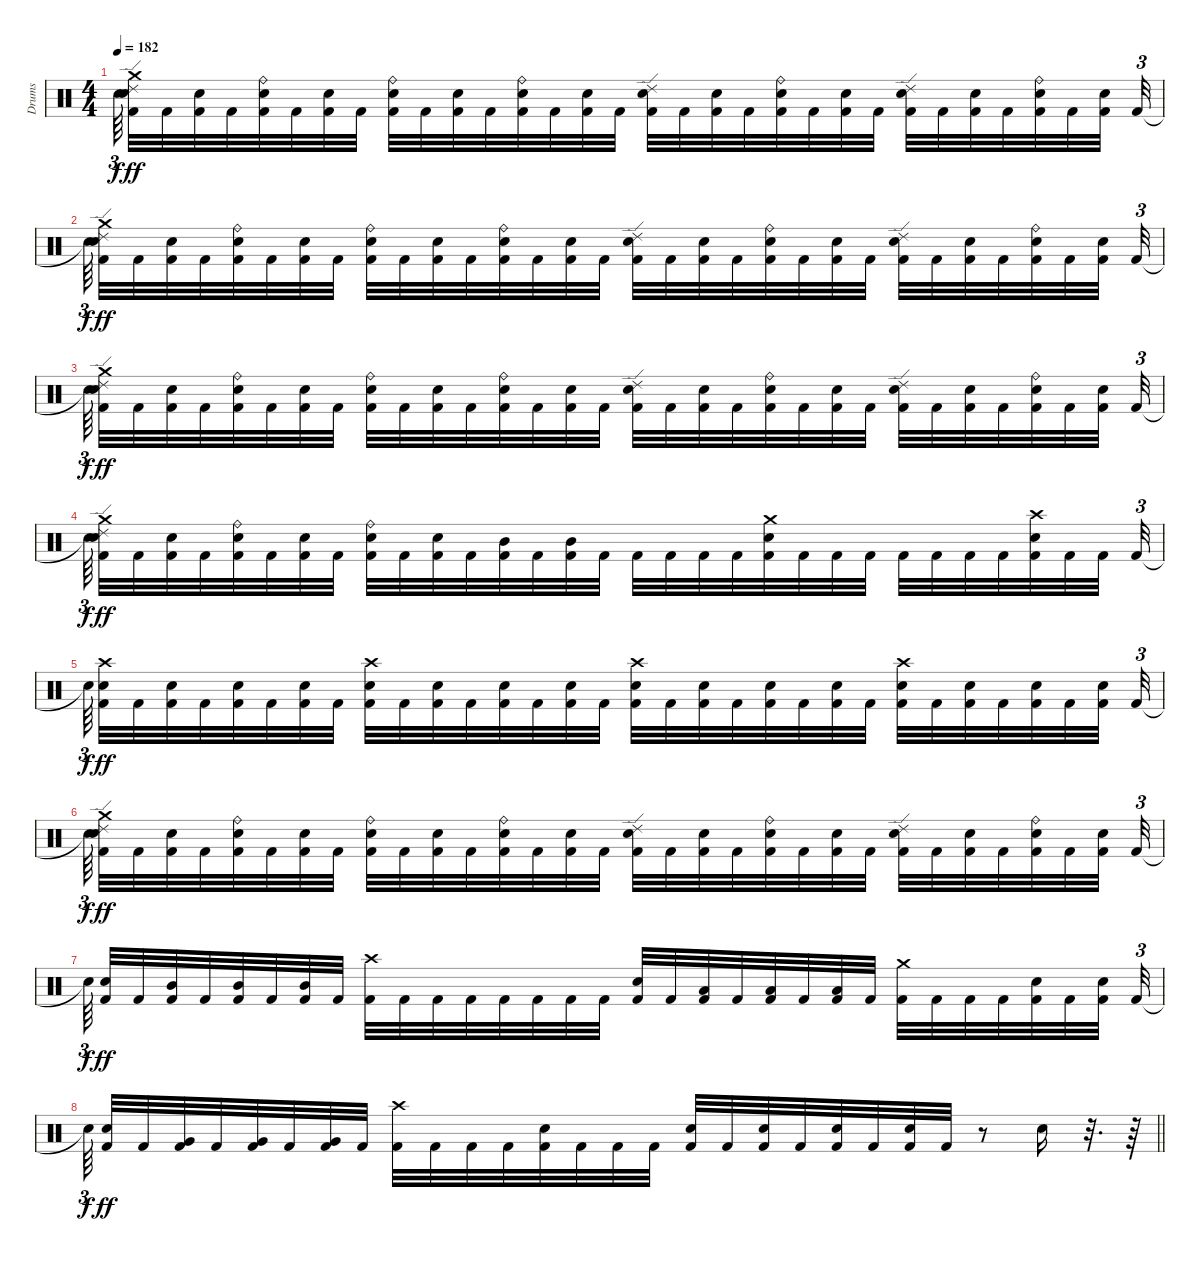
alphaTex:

\track ("Drums" "Drums") {instrument percussion}
\staff {score}
\articulation defaults
\ts (4 4)
\tempo 182
\clef neutral
\ks c "Snare (hit)"{t}.64{tu (3 2) dy f beam splitsecondary}
("Kick (hit) 2" "Snare (hit) 2" "Ride (edge) 2" "Crash medium (hit)").32{dy ff} "Kick (hit) 2".32 ("Kick (hit) 2" "Snare (hit) 2").32 "Kick (hit) 2".32 ("Kick (hit) 2" "Snare (hit) 2" "Ride (bell)").32 "Kick (hit) 2".32 ("Kick (hit) 2" "Snare (hit) 2").32 "Kick (hit) 2".32 ("Kick (hit) 2" "Snare (hit) 2" "Ride (bell)").32 "Kick (hit) 2".32 ("Kick (hit) 2" "Snare (hit) 2").32 "Kick (hit) 2".32 ("Kick (hit) 2" "Snare (hit) 2" "Ride (bell)").32 "Kick (hit) 2".32 ("Kick (hit) 2" "Snare (hit) 2").32 "Kick (hit) 2".32 ("Kick (hit) 2" "Snare (hit) 2" "Ride (edge) 2").32 "Kick (hit) 2".32 ("Kick (hit) 2" "Snare (hit) 2").32 "Kick (hit) 2".32 ("Kick (hit) 2" "Snare (hit) 2" "Ride (bell)").32 "Kick (hit) 2".32 ("Kick (hit) 2" "Snare (hit) 2").32 "Kick (hit) 2".32 ("Kick (hit) 2" "Snare (hit) 2" "Ride (edge) 2").32 "Kick (hit) 2".32 ("Kick (hit) 2" "Snare (hit) 2").32 "Kick (hit) 2".32 ("Kick (hit) 2" "Snare (hit) 2" "Ride (bell)").32 "Kick (hit) 2".32 ("Kick (hit) 2" "Snare (hit) 2").32{beam splitsecondary} "Kick (hit) 2".32{tu (3 2)} |
"Snare (hit)"{t}.64{tu (3 2) dy f beam splitsecondary} ("Kick (hit) 2" "Snare (hit) 2" "Ride (edge) 2" "Crash medium (hit)").32{dy ff} "Kick (hit) 2".32 ("Kick (hit) 2" "Snare (hit) 2").32 "Kick (hit) 2".32 ("Kick (hit) 2" "Snare (hit) 2" "Ride (bell)").32 "Kick (hit) 2".32 ("Kick (hit) 2" "Snare (hit) 2").32 "Kick (hit) 2".32 ("Kick (hit) 2" "Snare (hit) 2" "Ride (bell)").32 "Kick (hit) 2".32 ("Kick (hit) 2" "Snare (hit) 2").32 "Kick (hit) 2".32 ("Kick (hit) 2" "Snare (hit) 2" "Ride (bell)").32 "Kick (hit) 2".32 ("Kick (hit) 2" "Snare (hit) 2").32 "Kick (hit) 2".32 ("Kick (hit) 2" "Snare (hit) 2" "Ride (edge) 2").32 "Kick (hit) 2".32 ("Kick (hit) 2" "Snare (hit) 2").32 "Kick (hit) 2".32 ("Kick (hit) 2" "Snare (hit) 2" "Ride (bell)").32 "Kick (hit) 2".32 ("Kick (hit) 2" "Snare (hit) 2").32 "Kick (hit) 2".32 ("Kick (hit) 2" "Snare (hit) 2" "Ride (edge) 2").32 "Kick (hit) 2".32 ("Kick (hit) 2" "Snare (hit) 2").32 "Kick (hit) 2".32 ("Kick (hit) 2" "Snare (hit) 2" "Ride (bell)").32 "Kick (hit) 2".32 ("Kick (hit) 2" "Snare (hit) 2").32{beam splitsecondary} "Kick (hit) 2".32{tu (3 2)} |
"Snare (hit)"{t}.64{tu (3 2) dy f beam splitsecondary} ("Kick (hit) 2" "Snare (hit) 2" "Ride (edge) 2" "Crash medium (hit)").32{dy ff} "Kick (hit) 2".32 ("Kick (hit) 2" "Snare (hit) 2").32 "Kick (hit) 2".32 ("Kick (hit) 2" "Snare (hit) 2" "Ride (bell)").32 "Kick (hit) 2".32 ("Kick (hit) 2" "Snare (hit) 2").32 "Kick (hit) 2".32 ("Kick (hit) 2" "Snare (hit) 2" "Ride (bell)").32 "Kick (hit) 2".32 ("Kick (hit) 2" "Snare (hit) 2").32 "Kick (hit) 2".32 ("Kick (hit) 2" "Snare (hit) 2" "Ride (bell)").32 "Kick (hit) 2".32 ("Kick (hit) 2" "Snare (hit) 2").32 "Kick (hit) 2".32 ("Kick (hit) 2" "Snare (hit) 2" "Ride (edge) 2").32 "Kick (hit) 2".32 ("Kick (hit) 2" "Snare (hit) 2").32 "Kick (hit) 2".32 ("Kick (hit) 2" "Snare (hit) 2" "Ride (bell)").32 "Kick (hit) 2".32 ("Kick (hit) 2" "Snare (hit) 2").32 "Kick (hit) 2".32 ("Kick (hit) 2" "Snare (hit) 2" "Ride (edge) 2").32 "Kick (hit) 2".32 ("Kick (hit) 2" "Snare (hit) 2").32 "Kick (hit) 2".32 ("Kick (hit) 2" "Snare (hit) 2" "Ride (bell)").32 "Kick (hit) 2".32 ("Kick (hit) 2" "Snare (hit) 2").32{beam splitsecondary} "Kick (hit) 2".32{tu (3 2)} |
"Snare (hit)"{t}.64{tu (3 2) dy f beam splitsecondary} ("Kick (hit) 2" "Snare (hit) 2" "Ride (edge) 2" "Crash medium (hit)").32{dy ff} "Kick (hit) 2".32 ("Kick (hit) 2" "Snare (hit) 2").32 "Kick (hit) 2".32 ("Kick (hit) 2" "Snare (hit) 2" "Ride (bell)").32 "Kick (hit) 2".32 ("Kick (hit) 2" "Snare (hit) 2").32 "Kick (hit) 2".32 ("Kick (hit) 2" "Snare (hit) 2" "Ride (bell)").32 "Kick (hit) 2".32 ("Kick (hit) 2" "Snare (hit) 2").32 "Kick (hit) 2".32 ("Kick (hit) 2" "Mid Tom (hit)").32 "Kick (hit) 2".32 ("Kick (hit) 2" "Mid Tom (hit)").32 "Kick (hit) 2".32 "Kick (hit) 2".32 "Kick (hit) 2".32 "Kick (hit) 2".32 "Kick (hit) 2".32 ("Crash medium (hit)" "Kick (hit) 2" "Snare (hit) 2").32 "Kick (hit) 2".32 "Kick (hit) 2".32 "Kick (hit) 2".32 "Kick (hit) 2".32 "Kick (hit) 2".32 "Kick (hit) 2".32 "Kick (hit) 2".32 ("Crash high (hit)" "Kick (hit) 2" "Snare (hit) 2").32 "Kick (hit) 2".32 "Kick (hit) 2".32{beam splitsecondary} "Kick (hit) 2".32{tu (3 2)} |
"Snare (hit)"{t}.64{tu (3 2) dy f beam splitsecondary} ("Crash high (hit)" "Kick (hit) 2" "Snare (hit) 2").32{dy ff} "Kick (hit) 2".32 ("Kick (hit) 2" "Snare (hit) 2").32 "Kick (hit) 2".32 ("Kick (hit) 2" "Snare (hit) 2").32 "Kick (hit) 2".32 ("Kick (hit) 2" "Snare (hit) 2").32 "Kick (hit) 2".32 ("Crash high (hit)" "Kick (hit) 2" "Snare (hit) 2").32 "Kick (hit) 2".32 ("Kick (hit) 2" "Snare (hit) 2").32 "Kick (hit) 2".32 ("Kick (hit) 2" "Snare (hit) 2").32 "Kick (hit) 2".32 ("Kick (hit) 2" "Snare (hit) 2").32 "Kick (hit) 2".32 ("Crash high (hit)" "Kick (hit) 2" "Snare (hit) 2").32 "Kick (hit) 2".32 ("Kick (hit) 2" "Snare (hit) 2").32 "Kick (hit) 2".32 ("Kick (hit) 2" "Snare (hit) 2").32 "Kick (hit) 2".32 ("Kick (hit) 2" "Snare (hit) 2").32 "Kick (hit) 2".32 ("Crash high (hit)" "Kick (hit) 2" "Snare (hit) 2").32 "Kick (hit) 2".32 ("Kick (hit) 2" "Snare (hit) 2").32 "Kick (hit) 2".32 ("Kick (hit) 2" "Snare (hit) 2").32 "Kick (hit) 2".32 ("Kick (hit) 2" "Snare (hit) 2").32{beam splitsecondary} "Kick (hit) 2".32{tu (3 2)} |
"Snare (hit)"{t}.64{tu (3 2) dy f beam splitsecondary} ("Kick (hit) 2" "Snare (hit) 2" "Ride (edge) 2" "Crash medium (hit)").32{dy ff} "Kick (hit) 2".32 ("Kick (hit) 2" "Snare (hit) 2").32 "Kick (hit) 2".32 ("Kick (hit) 2" "Snare (hit) 2" "Ride (bell)").32 "Kick (hit) 2".32 ("Kick (hit) 2" "Snare (hit) 2").32 "Kick (hit) 2".32 ("Kick (hit) 2" "Snare (hit) 2" "Ride (bell)").32 "Kick (hit) 2".32 ("Kick (hit) 2" "Snare (hit) 2").32 "Kick (hit) 2".32 ("Kick (hit) 2" "Snare (hit) 2" "Ride (bell)").32 "Kick (hit) 2".32 ("Kick (hit) 2" "Snare (hit) 2").32 "Kick (hit) 2".32 ("Kick (hit) 2" "Snare (hit) 2" "Ride (edge) 2").32 "Kick (hit) 2".32 ("Kick (hit) 2" "Snare (hit) 2").32 "Kick (hit) 2".32 ("Kick (hit) 2" "Snare (hit) 2" "Ride (bell)").32 "Kick (hit) 2".32 ("Kick (hit) 2" "Snare (hit) 2").32 "Kick (hit) 2".32 ("Kick (hit) 2" "Snare (hit) 2" "Ride (edge) 2").32 "Kick (hit) 2".32 ("Kick (hit) 2" "Snare (hit) 2").32 "Kick (hit) 2".32 ("Kick (hit) 2" "Snare (hit) 2" "Ride (bell)").32 "Kick (hit) 2".32 ("Kick (hit) 2" "Snare (hit) 2").32{beam splitsecondary} "Kick (hit) 2".32{tu (3 2)} |
"Snare (hit)"{t}.64{tu (3 2) dy f beam splitsecondary} ("Kick (hit) 2" "Snare (hit) 2").32{dy ff} "Kick (hit) 2".32 ("Kick (hit) 2" "Mid Tom (hit)").32 "Kick (hit) 2".32 ("Kick (hit) 2" "Mid Tom (hit)").32 "Kick (hit) 2".32 ("Kick (hit) 2" "Mid Tom (hit)").32 "Kick (hit) 2".32 ("Crash high (hit)" "Kick (hit) 2").32 "Kick (hit) 2".32 "Kick (hit) 2".32 "Kick (hit) 2".32 "Kick (hit) 2".32 "Kick (hit) 2".32 "Kick (hit) 2".32 "Kick (hit) 2".32 ("Kick (hit) 2" "Snare (hit) 2").32 "Kick (hit) 2".32 ("Kick (hit) 2" "Low Tom (hit)").32 "Kick (hit) 2".32 ("Kick (hit) 2" "Low Tom (hit)").32 "Kick (hit) 2".32 ("Kick (hit) 2" "Low Tom (hit)").32 "Kick (hit) 2".32 ("Crash medium (hit)" "Kick (hit) 2").32 "Kick (hit) 2".32 "Kick (hit) 2".32 "Kick (hit) 2".32 ("Kick (hit) 2" "Snare (hit) 2").32 "Kick (hit) 2".32 ("Kick (hit) 2" "Snare (hit) 2").32{beam splitsecondary} "Kick (hit) 2".32{tu (3 2)} |
\barLineRight lightlight "Snare (hit)"{t}.64{tu (3 2) dy f beam splitsecondary}
("Kick (hit) 2" "Snare (hit) 2").32{dy ff} "Kick (hit) 2".32 ("Kick (hit) 2" "Very Low Tom (hit)").32 "Kick (hit) 2".32 ("Kick (hit) 2" "Very Low Tom (hit)").32 "Kick (hit) 2".32 ("Kick (hit) 2" "Very Low Tom (hit)").32 "Kick (hit) 2".32 ("Crash high (hit)" "Kick (hit) 2").32 "Kick (hit) 2".32 "Kick (hit) 2".32 "Kick (hit) 2".32 ("Kick (hit) 2" "Snare (hit) 2").32 "Kick (hit) 2".32 "Kick (hit) 2".32 "Kick (hit) 2".32 ("Kick (hit) 2" "Snare (hit) 2").32 "Kick (hit) 2".32 ("Kick (hit) 2" "Snare (hit) 2").32 "Kick (hit) 2".32 ("Kick (hit) 2" "Snare (hit) 2").32 "Kick (hit) 2".32 ("Kick (hit) 2" "Snare (hit) 2").32 "Kick (hit) 2".32 r.8 "Snare (hit) 2".16 r.32{d} r.64
